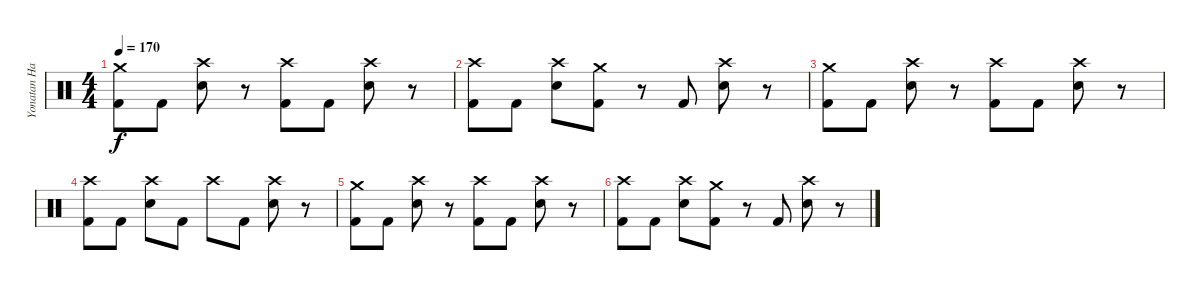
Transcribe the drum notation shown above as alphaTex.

\track ("Yonatan Harpak (drums)" "Yonatan Ha") {instrument percussion}
\staff {score}
\articulation defaults
\ts (4 4)
\tempo 170
\clef neutral
\ks c
("Crash medium (hit)" "Kick (hit) 2").8{dy f} "Kick (hit) 2".8 ("Crash high (hit)" "Snare (hit) 2").8 r.8 ("Crash high (hit)" "Kick (hit) 2").8 "Kick (hit) 2".8 ("Crash high (hit)" "Snare (hit) 2").8 r.8 |
("Crash high (hit)" "Kick (hit) 2").8 "Kick (hit) 2".8 ("Crash high (hit)" "Snare (hit) 2").8 ("Crash medium (hit)" "Kick (hit) 2").8 r.8 "Kick (hit) 2".8 ("Crash high (hit)" "Snare (hit) 2").8 r.8 |
("Crash medium (hit)" "Kick (hit) 2").8 "Kick (hit) 2".8 ("Crash high (hit)" "Snare (hit) 2").8 r.8 ("Crash high (hit)" "Kick (hit) 2").8 "Kick (hit) 2".8 ("Crash high (hit)" "Snare (hit) 2").8 r.8 |
("Crash high (hit)" "Kick (hit) 2").8 "Kick (hit) 2".8 ("Crash high (hit)" "Snare (hit) 2").8 "Kick (hit) 2".8 "Crash high (hit)".8 "Kick (hit) 2".8 ("Crash high (hit)" "Snare (hit) 2").8 r.8 |
("Crash medium (hit)" "Kick (hit) 2").8 "Kick (hit) 2".8 ("Crash high (hit)" "Snare (hit) 2").8 r.8 ("Crash high (hit)" "Kick (hit) 2").8 "Kick (hit) 2".8 ("Crash high (hit)" "Snare (hit) 2").8 r.8 |
("Crash high (hit)" "Kick (hit) 2").8 "Kick (hit) 2".8 ("Crash high (hit)" "Snare (hit) 2").8 ("Crash medium (hit)" "Kick (hit) 2").8 r.8 "Kick (hit) 2".8 ("Crash high (hit)" "Snare (hit) 2").8 r.8
